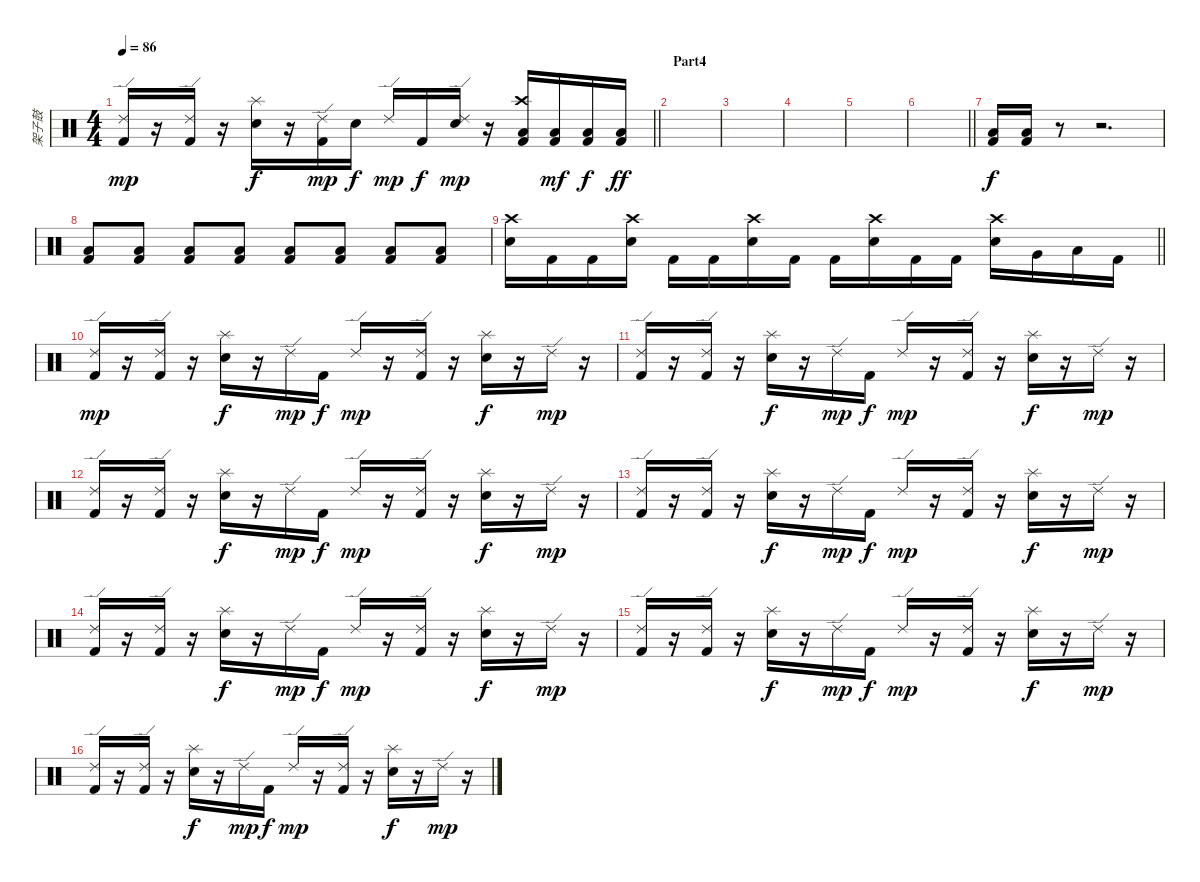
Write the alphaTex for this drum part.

\track ("架子鼓" "架子鼓") {instrument percussion}
\staff {score}
\articulation defaults
\ts (4 4)
\tempo 86
\clef neutral
\barLineRight lightlight
\ks c
("Ride (edge) 2" "Kick (hit) 2").16{dy mp} r.16 ("Ride (edge) 2" "Kick (hit) 2").16 r.16 ("Splash (hit)" "Snare (hit) 2").16{dy f} r.16 ("Ride (edge) 2" "Kick (hit) 2").16{dy mp} "Snare (hit) 2".16{dy f} "Ride (edge) 2".16{dy mp} "Kick (hit) 2".16{dy f} ("Ride (edge) 2" "Snare (hit) 2").16{dy mp} r.16 ("Crash high (hit)" "Low Floor Tom (hit)" "Kick (hit) 2").16 ("Low Floor Tom (hit)" "Kick (hit) 2").16{dy mf} ("Low Floor Tom (hit)" "Kick (hit) 2").16{dy f} ("Low Floor Tom (hit)" "Kick (hit) 2").16{dy ff} |
\section ("" "Part4")
|
|
|
|
\barLineRight lightlight
|
\section ("" "")
("Low Floor Tom (hit)" "Kick (hit) 2").16{dy f} ("Low Floor Tom (hit)" "Kick (hit) 2").16 r.8 r.2{d} |
("Low Floor Tom (hit)" "Kick (hit) 2").8 ("Low Floor Tom (hit)" "Kick (hit) 2").8 ("Low Floor Tom (hit)" "Kick (hit) 2").8 ("Low Floor Tom (hit)" "Kick (hit) 2").8 ("Low Floor Tom (hit)" "Kick (hit) 2").8 ("Low Floor Tom (hit)" "Kick (hit) 2").8 ("Low Floor Tom (hit)" "Kick (hit) 2").8 ("Low Floor Tom (hit)" "Kick (hit) 2").8 |
\barLineRight lightlight
("Crash high (hit)" "Snare (hit) 2").16 "Kick (hit) 2".16 "Kick (hit) 2".16 ("Crash high (hit)" "Snare (hit) 2").16 "Kick (hit) 2".16 "Kick (hit) 2".16 ("Crash high (hit)" "Snare (hit) 2").16 "Kick (hit) 2".16 "Kick (hit) 2".16 ("Crash high (hit)" "Snare (hit) 2").16 "Kick (hit) 2".16 "Kick (hit) 2".16 ("Crash high (hit)" "Snare (hit) 2").16 "Very Low Tom (hit)".16 "Low Floor Tom (hit)".16 "Kick (hit) 2".16 |
\section ("" "")
("Ride (edge) 2" "Kick (hit) 2").16{dy mp} r.16 ("Ride (edge) 2" "Kick (hit) 2").16 r.16 ("Splash (hit)" "Snare (hit) 2").16{dy f} r.16 "Ride (edge) 2".16{dy mp} "Kick (hit) 2".16{dy f} "Ride (edge) 2".16{dy mp} r.16 ("Ride (edge) 2" "Kick (hit) 2").16 r.16 ("Splash (hit)" "Snare (hit) 2").16{dy f} r.16 "Ride (edge) 2".16{dy mp} r.16 |
("Ride (edge) 2" "Kick (hit) 2").16 r.16 ("Ride (edge) 2" "Kick (hit) 2").16 r.16 ("Splash (hit)" "Snare (hit) 2").16{dy f} r.16 "Ride (edge) 2".16{dy mp} "Kick (hit) 2".16{dy f} "Ride (edge) 2".16{dy mp} r.16 ("Ride (edge) 2" "Kick (hit) 2").16 r.16 ("Splash (hit)" "Snare (hit) 2").16{dy f} r.16 "Ride (edge) 2".16{dy mp} r.16 |
("Ride (edge) 2" "Kick (hit) 2").16 r.16 ("Ride (edge) 2" "Kick (hit) 2").16 r.16 ("Splash (hit)" "Snare (hit) 2").16{dy f} r.16 "Ride (edge) 2".16{dy mp} "Kick (hit) 2".16{dy f} "Ride (edge) 2".16{dy mp} r.16 ("Ride (edge) 2" "Kick (hit) 2").16 r.16 ("Splash (hit)" "Snare (hit) 2").16{dy f} r.16 "Ride (edge) 2".16{dy mp} r.16 |
("Ride (edge) 2" "Kick (hit) 2").16 r.16 ("Ride (edge) 2" "Kick (hit) 2").16 r.16 ("Splash (hit)" "Snare (hit) 2").16{dy f} r.16 "Ride (edge) 2".16{dy mp} "Kick (hit) 2".16{dy f} "Ride (edge) 2".16{dy mp} r.16 ("Ride (edge) 2" "Kick (hit) 2").16 r.16 ("Splash (hit)" "Snare (hit) 2").16{dy f} r.16 "Ride (edge) 2".16{dy mp} r.16 |
("Ride (edge) 2" "Kick (hit) 2").16 r.16 ("Ride (edge) 2" "Kick (hit) 2").16 r.16 ("Splash (hit)" "Snare (hit) 2").16{dy f} r.16 "Ride (edge) 2".16{dy mp} "Kick (hit) 2".16{dy f} "Ride (edge) 2".16{dy mp} r.16 ("Ride (edge) 2" "Kick (hit) 2").16 r.16 ("Splash (hit)" "Snare (hit) 2").16{dy f} r.16 "Ride (edge) 2".16{dy mp} r.16 |
("Ride (edge) 2" "Kick (hit) 2").16 r.16 ("Ride (edge) 2" "Kick (hit) 2").16 r.16 ("Splash (hit)" "Snare (hit) 2").16{dy f} r.16 "Ride (edge) 2".16{dy mp} "Kick (hit) 2".16{dy f} "Ride (edge) 2".16{dy mp} r.16 ("Ride (edge) 2" "Kick (hit) 2").16 r.16 ("Splash (hit)" "Snare (hit) 2").16{dy f} r.16 "Ride (edge) 2".16{dy mp} r.16 |
("Ride (edge) 2" "Kick (hit) 2").16 r.16 ("Ride (edge) 2" "Kick (hit) 2").16 r.16 ("Splash (hit)" "Snare (hit) 2").16{dy f} r.16 "Ride (edge) 2".16{dy mp} "Kick (hit) 2".16{dy f} "Ride (edge) 2".16{dy mp} r.16 ("Ride (edge) 2" "Kick (hit) 2").16 r.16 ("Splash (hit)" "Snare (hit) 2").16{dy f} r.16 "Ride (edge) 2".16{dy mp} r.16
